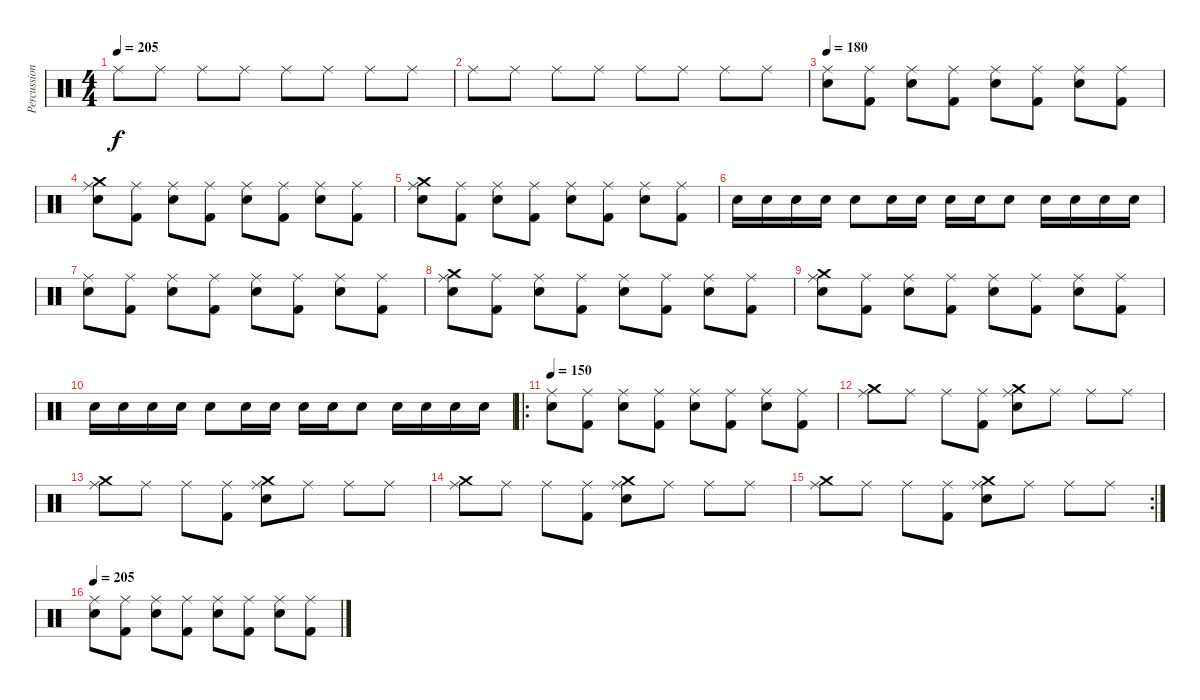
\track ("Percussion" "Percussion") {instrument percussion}
\staff {score}
\articulation defaults
\ts (4 4)
\tempo 205
\clef neutral
\ks c "Ride (middle)".8{dy f} "Ride (middle)".8 "Ride (middle)".8 "Ride (middle)".8 "Ride (middle)".8 "Ride (middle)".8 "Ride (middle)".8 "Ride (middle)".8
|
"Ride (middle)".8 "Ride (middle)".8 "Ride (middle)".8 "Ride (middle)".8 "Ride (middle)".8 "Ride (middle)".8 "Ride (middle)".8 "Ride (middle)".8 |
\tempo 180
("Snare (hit) 2" "Ride (middle)").8 ("Kick (hit) 2" "Ride (middle)").8 ("Snare (hit) 2" "Ride (middle)").8 ("Kick (hit) 2" "Ride (middle)").8 ("Snare (hit) 2" "Ride (middle)").8 ("Kick (hit) 2" "Ride (middle)").8 ("Snare (hit) 2" "Ride (middle)").8 ("Kick (hit) 2" "Ride (middle)").8 |
("Crash medium (hit)" "Snare (hit) 2" "Ride (middle)").8 ("Kick (hit) 2" "Ride (middle)").8 ("Snare (hit) 2" "Ride (middle)").8 ("Kick (hit) 2" "Ride (middle)").8 ("Snare (hit) 2" "Ride (middle)").8 ("Kick (hit) 2" "Ride (middle)").8 ("Snare (hit) 2" "Ride (middle)").8 ("Kick (hit) 2" "Ride (middle)").8 |
("Crash medium (hit)" "Snare (hit) 2" "Ride (middle)").8 ("Kick (hit) 2" "Ride (middle)").8 ("Snare (hit) 2" "Ride (middle)").8 ("Kick (hit) 2" "Ride (middle)").8 ("Snare (hit) 2" "Ride (middle)").8 ("Kick (hit) 2" "Ride (middle)").8 ("Snare (hit) 2" "Ride (middle)").8 ("Kick (hit) 2" "Ride (middle)").8 |
"Snare (hit) 2".16 "Snare (hit) 2".16 "Snare (hit) 2".16 "Snare (hit) 2".16 "Snare (hit) 2".8 "Snare (hit) 2".16 "Snare (hit) 2".16 "Snare (hit) 2".16 "Snare (hit) 2".16 "Snare (hit) 2".8 "Snare (hit) 2".16 "Snare (hit) 2".16 "Snare (hit) 2".16 "Snare (hit) 2".16 |
("Snare (hit) 2" "Ride (middle)").8 ("Kick (hit) 2" "Ride (middle)").8 ("Snare (hit) 2" "Ride (middle)").8 ("Kick (hit) 2" "Ride (middle)").8 ("Snare (hit) 2" "Ride (middle)").8 ("Kick (hit) 2" "Ride (middle)").8 ("Snare (hit) 2" "Ride (middle)").8 ("Kick (hit) 2" "Ride (middle)").8 |
("Crash medium (hit)" "Snare (hit) 2" "Ride (middle)").8 ("Kick (hit) 2" "Ride (middle)").8 ("Snare (hit) 2" "Ride (middle)").8 ("Kick (hit) 2" "Ride (middle)").8 ("Snare (hit) 2" "Ride (middle)").8 ("Kick (hit) 2" "Ride (middle)").8 ("Snare (hit) 2" "Ride (middle)").8 ("Kick (hit) 2" "Ride (middle)").8 |
("Crash medium (hit)" "Snare (hit) 2" "Ride (middle)").8 ("Kick (hit) 2" "Ride (middle)").8 ("Snare (hit) 2" "Ride (middle)").8 ("Kick (hit) 2" "Ride (middle)").8 ("Snare (hit) 2" "Ride (middle)").8 ("Kick (hit) 2" "Ride (middle)").8 ("Snare (hit) 2" "Ride (middle)").8 ("Kick (hit) 2" "Ride (middle)").8 |
"Snare (hit) 2".16 "Snare (hit) 2".16 "Snare (hit) 2".16 "Snare (hit) 2".16 "Snare (hit) 2".8 "Snare (hit) 2".16 "Snare (hit) 2".16 "Snare (hit) 2".16 "Snare (hit) 2".16 "Snare (hit) 2".8 "Snare (hit) 2".16 "Snare (hit) 2".16 "Snare (hit) 2".16 "Snare (hit) 2".16 |
\ro
\tempo 150
("Snare (hit) 2" "Ride (middle)").8 ("Kick (hit) 2" "Ride (middle)").8 ("Snare (hit) 2" "Ride (middle)").8 ("Kick (hit) 2" "Ride (middle)").8 ("Snare (hit) 2" "Ride (middle)").8 ("Kick (hit) 2" "Ride (middle)").8 ("Snare (hit) 2" "Ride (middle)").8 ("Kick (hit) 2" "Ride (middle)").8 |
("Crash medium (hit)" "Ride (middle)").8 "Ride (middle)".8 "Ride (middle)".8 ("Kick (hit) 2" "Ride (middle)").8 ("Crash medium (hit)" "Snare (hit) 2" "Ride (middle)").8 "Ride (middle)".8 "Ride (middle)".8 "Ride (middle)".8 |
("Crash medium (hit)" "Ride (middle)").8 "Ride (middle)".8 "Ride (middle)".8 ("Kick (hit) 2" "Ride (middle)").8 ("Crash medium (hit)" "Snare (hit) 2" "Ride (middle)").8 "Ride (middle)".8 "Ride (middle)".8 "Ride (middle)".8 |
("Crash medium (hit)" "Ride (middle)").8 "Ride (middle)".8 "Ride (middle)".8 ("Kick (hit) 2" "Ride (middle)").8 ("Crash medium (hit)" "Snare (hit) 2" "Ride (middle)").8 "Ride (middle)".8 "Ride (middle)".8 "Ride (middle)".8 |
\rc 2
("Crash medium (hit)" "Ride (middle)").8 "Ride (middle)".8 "Ride (middle)".8 ("Kick (hit) 2" "Ride (middle)").8 ("Crash medium (hit)" "Snare (hit) 2" "Ride (middle)").8 "Ride (middle)".8 "Ride (middle)".8 "Ride (middle)".8 |
\tempo 205
("Snare (hit) 2" "Ride (middle)").8 ("Kick (hit) 2" "Ride (middle)").8 ("Snare (hit) 2" "Ride (middle)").8 ("Kick (hit) 2" "Ride (middle)").8 ("Snare (hit) 2" "Ride (middle)").8 ("Kick (hit) 2" "Ride (middle)").8 ("Snare (hit) 2" "Ride (middle)").8 ("Kick (hit) 2" "Ride (middle)").8
